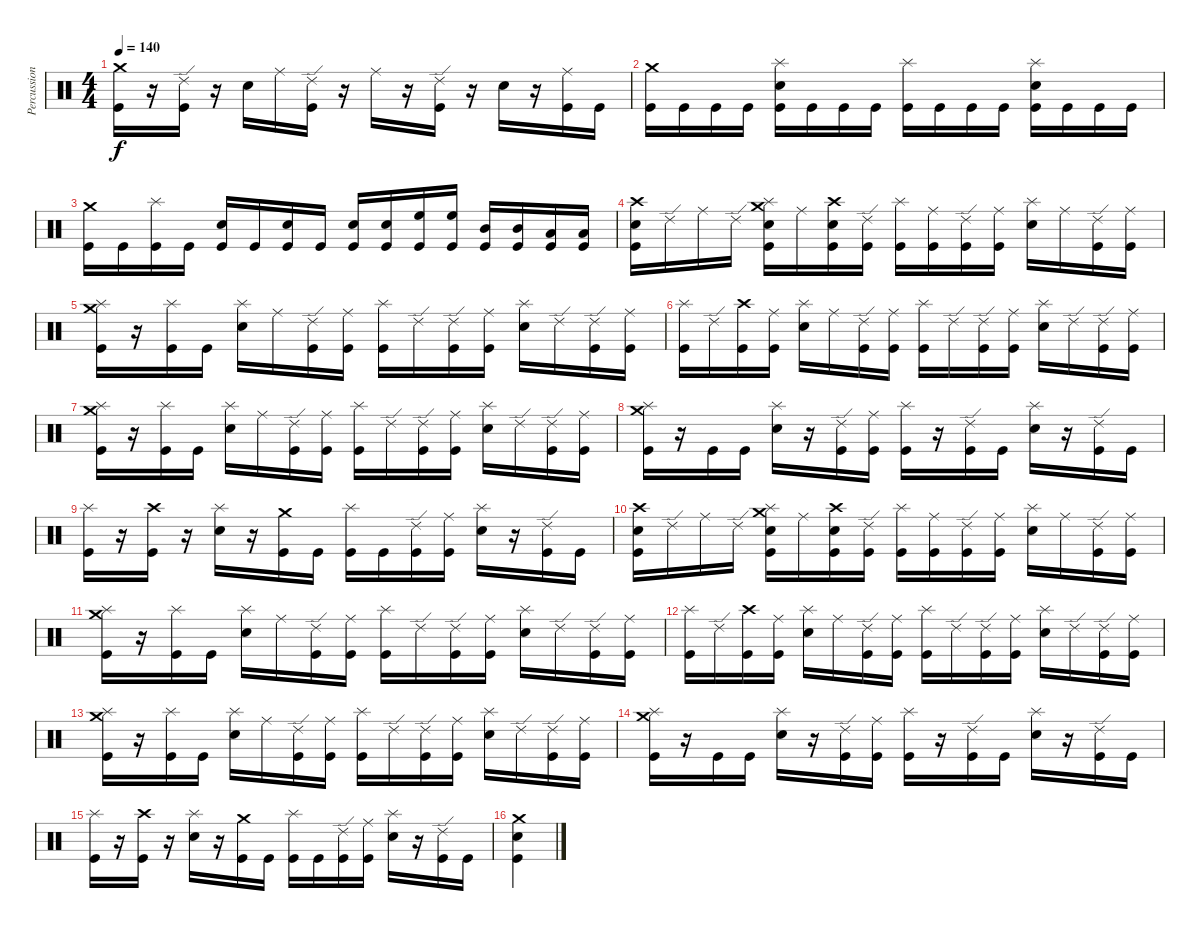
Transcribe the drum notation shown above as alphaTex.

\track ("Percussion" "Percussion") {instrument percussion}
\staff {score}
\articulation defaults
\ts (4 4)
\tempo 140
\clef neutral
\ks c
("Crash medium (hit)" "Kick (hit)").16{dy f} r.16 ("Ride (edge) 2" "Kick (hit)").16 r.16 "Electric Snare (hit)".16 "Ride (middle)".16 ("Ride (edge) 2" "Kick (hit)").16 r.16 "Ride (middle)".16 r.16 ("Ride (edge) 2" "Kick (hit)").16 r.16 "Electric Snare (hit)".16 r.16 ("Ride (middle)" "Kick (hit)").16 "Kick (hit)".16 |
("Crash medium (hit)" "Kick (hit)").16 "Kick (hit)".16 "Kick (hit)".16 "Kick (hit)".16 ("Electric Snare (hit)" "Splash (hit)" "Kick (hit)").16 "Kick (hit)".16 "Kick (hit)".16 "Kick (hit)".16 ("Splash (hit)" "Kick (hit)").16 "Kick (hit)".16 "Kick (hit)".16 "Kick (hit)".16 ("Electric Snare (hit)" "Splash (hit)" "Kick (hit)").16 "Kick (hit)".16 "Kick (hit)".16 "Kick (hit)".16 |
("Crash medium (hit)" "Kick (hit)").16 "Kick (hit)".16 ("Splash (hit)" "Kick (hit)").16 "Kick (hit)".16 ("Electric Snare (hit)" "Kick (hit)").16 "Kick (hit)".16 ("Electric Snare (hit)" "Kick (hit)").16 "Kick (hit)".16 ("Electric Snare (hit)" "Kick (hit)").16 ("Electric Snare (hit)" "Kick (hit)").16 ("High Floor Tom (hit)" "Kick (hit)").16 ("High Floor Tom (hit)" "Kick (hit)").16 ("Mid Tom (hit)" "Kick (hit)").16 ("Mid Tom (hit)" "Kick (hit)").16 ("Low Tom (hit)" "Kick (hit)").16 ("Low Tom (hit)" "Kick (hit)").16 |
("Crash high (hit)" "Electric Snare (hit)" "Kick (hit)").16 "Ride (edge) 2".16 "Ride (middle)".16 "Ride (edge) 2".16 ("Crash medium (hit)" "Electric Snare (hit)" "Splash (hit)" "Kick (hit)").16 "Ride (middle)".16 ("Crash high (hit)" "Electric Snare (hit)" "Kick (hit)").16 ("Ride (edge) 2" "Kick (hit)").16 ("Splash (hit)" "Kick (hit)").16 ("Ride (middle)" "Kick (hit)").16 ("Ride (edge) 2" "Kick (hit)").16 ("Ride (middle)" "Kick (hit)").16 ("Electric Snare (hit)" "Splash (hit)").16 "Ride (middle)".16 ("Ride (edge) 2" "Kick (hit)").16 ("Ride (middle)" "Kick (hit)").16 |
("Crash medium (hit)" "Splash (hit)" "Kick (hit)").16 r.16 ("Splash (hit)" "Kick (hit)").16 "Kick (hit)".16 ("Electric Snare (hit)" "Splash (hit)").16 "Ride (middle)".16 ("Ride (edge) 2" "Kick (hit)").16 ("Ride (middle)" "Kick (hit)").16 ("Splash (hit)" "Kick (hit)").16 "Ride (edge) 2".16 ("Ride (edge) 2" "Kick (hit)").16 ("Ride (middle)" "Kick (hit)").16 ("Electric Snare (hit)" "Splash (hit)").16 "Ride (edge) 2".16 ("Ride (edge) 2" "Kick (hit)").16 ("Ride (middle)" "Kick (hit)").16 |
("Splash (hit)" "Kick (hit)").16 "Ride (edge) 2".16 ("Crash high (hit)" "Kick (hit)").16 ("Ride (middle)" "Kick (hit)").16 ("Electric Snare (hit)" "Splash (hit)").16 "Ride (middle)".16 ("Ride (edge) 2" "Kick (hit)").16 ("Ride (middle)" "Kick (hit)").16 ("Splash (hit)" "Kick (hit)").16 "Ride (edge) 2".16 ("Ride (edge) 2" "Kick (hit)").16 ("Ride (middle)" "Kick (hit)").16 ("Electric Snare (hit)" "Splash (hit)").16 "Ride (edge) 2".16 ("Ride (edge) 2" "Kick (hit)").16 ("Ride (middle)" "Kick (hit)").16 |
("Crash medium (hit)" "Splash (hit)" "Kick (hit)").16 r.16 ("Splash (hit)" "Kick (hit)").16 "Kick (hit)".16 ("Electric Snare (hit)" "Splash (hit)").16 "Ride (middle)".16 ("Ride (edge) 2" "Kick (hit)").16 ("Ride (middle)" "Kick (hit)").16 ("Splash (hit)" "Kick (hit)").16 "Ride (edge) 2".16 ("Ride (edge) 2" "Kick (hit)").16 ("Ride (middle)" "Kick (hit)").16 ("Electric Snare (hit)" "Splash (hit)").16 "Ride (edge) 2".16 ("Ride (edge) 2" "Kick (hit)").16 ("Ride (middle)" "Kick (hit)").16 |
("Crash medium (hit)" "Splash (hit)" "Kick (hit)").16 r.16 "Kick (hit)".16 "Kick (hit)".16 ("Electric Snare (hit)" "Splash (hit)").16 r.16 ("Ride (edge) 2" "Kick (hit)").16 ("Ride (middle)" "Kick (hit)").16 ("Splash (hit)" "Kick (hit)").16 r.16 ("Ride (edge) 2" "Kick (hit)").16 "Kick (hit)".16 ("Electric Snare (hit)" "Splash (hit)").16 r.16 ("Ride (edge) 2" "Kick (hit)").16 "Kick (hit)".16 |
("Splash (hit)" "Kick (hit)").16 r.16 ("Crash high (hit)" "Kick (hit)").16 r.16 ("Electric Snare (hit)" "Splash (hit)").16 r.16 ("Crash medium (hit)" "Kick (hit)").16 "Kick (hit)".16 ("Splash (hit)" "Kick (hit)").16 "Kick (hit)".16 ("Ride (edge) 2" "Kick (hit)").16 ("Ride (middle)" "Kick (hit)").16 ("Electric Snare (hit)" "Splash (hit)").16 r.16 ("Ride (edge) 2" "Kick (hit)").16 "Kick (hit)".16 |
("Crash high (hit)" "Electric Snare (hit)" "Kick (hit)").16 "Ride (edge) 2".16 "Ride (middle)".16 "Ride (edge) 2".16 ("Crash medium (hit)" "Electric Snare (hit)" "Splash (hit)" "Kick (hit)").16 "Ride (middle)".16 ("Crash high (hit)" "Electric Snare (hit)" "Kick (hit)").16 ("Ride (edge) 2" "Kick (hit)").16 ("Splash (hit)" "Kick (hit)").16 ("Ride (middle)" "Kick (hit)").16 ("Ride (edge) 2" "Kick (hit)").16 ("Ride (middle)" "Kick (hit)").16 ("Electric Snare (hit)" "Splash (hit)").16 "Ride (middle)".16 ("Ride (edge) 2" "Kick (hit)").16 ("Ride (middle)" "Kick (hit)").16 |
("Crash medium (hit)" "Splash (hit)" "Kick (hit)").16 r.16 ("Splash (hit)" "Kick (hit)").16 "Kick (hit)".16 ("Electric Snare (hit)" "Splash (hit)").16 "Ride (middle)".16 ("Ride (edge) 2" "Kick (hit)").16 ("Ride (middle)" "Kick (hit)").16 ("Splash (hit)" "Kick (hit)").16 "Ride (edge) 2".16 ("Ride (edge) 2" "Kick (hit)").16 ("Ride (middle)" "Kick (hit)").16 ("Electric Snare (hit)" "Splash (hit)").16 "Ride (edge) 2".16 ("Ride (edge) 2" "Kick (hit)").16 ("Ride (middle)" "Kick (hit)").16 |
("Splash (hit)" "Kick (hit)").16 "Ride (edge) 2".16 ("Crash high (hit)" "Kick (hit)").16 ("Ride (middle)" "Kick (hit)").16 ("Electric Snare (hit)" "Splash (hit)").16 "Ride (middle)".16 ("Ride (edge) 2" "Kick (hit)").16 ("Ride (middle)" "Kick (hit)").16 ("Splash (hit)" "Kick (hit)").16 "Ride (edge) 2".16 ("Ride (edge) 2" "Kick (hit)").16 ("Ride (middle)" "Kick (hit)").16 ("Electric Snare (hit)" "Splash (hit)").16 "Ride (edge) 2".16 ("Ride (edge) 2" "Kick (hit)").16 ("Ride (middle)" "Kick (hit)").16 |
("Crash medium (hit)" "Splash (hit)" "Kick (hit)").16 r.16 ("Splash (hit)" "Kick (hit)").16 "Kick (hit)".16 ("Electric Snare (hit)" "Splash (hit)").16 "Ride (middle)".16 ("Ride (edge) 2" "Kick (hit)").16 ("Ride (middle)" "Kick (hit)").16 ("Splash (hit)" "Kick (hit)").16 "Ride (edge) 2".16 ("Ride (edge) 2" "Kick (hit)").16 ("Ride (middle)" "Kick (hit)").16 ("Electric Snare (hit)" "Splash (hit)").16 "Ride (edge) 2".16 ("Ride (edge) 2" "Kick (hit)").16 ("Ride (middle)" "Kick (hit)").16 |
("Crash medium (hit)" "Splash (hit)" "Kick (hit)").16 r.16 "Kick (hit)".16 "Kick (hit)".16 ("Electric Snare (hit)" "Splash (hit)").16 r.16 ("Ride (edge) 2" "Kick (hit)").16 ("Ride (middle)" "Kick (hit)").16 ("Splash (hit)" "Kick (hit)").16 r.16 ("Ride (edge) 2" "Kick (hit)").16 "Kick (hit)".16 ("Electric Snare (hit)" "Splash (hit)").16 r.16 ("Ride (edge) 2" "Kick (hit)").16 "Kick (hit)".16 |
("Splash (hit)" "Kick (hit)").16 r.16 ("Crash high (hit)" "Kick (hit)").16 r.16 ("Electric Snare (hit)" "Splash (hit)").16 r.16 ("Crash medium (hit)" "Kick (hit)").16 "Kick (hit)".16 ("Splash (hit)" "Kick (hit)").16 "Kick (hit)".16 ("Ride (edge) 2" "Kick (hit)").16 ("Ride (middle)" "Kick (hit)").16 ("Electric Snare (hit)" "Splash (hit)").16 r.16 ("Ride (edge) 2" "Kick (hit)").16 "Kick (hit)".16 |
("Crash medium (hit)" "Electric Snare (hit)" "Kick (hit)").4
